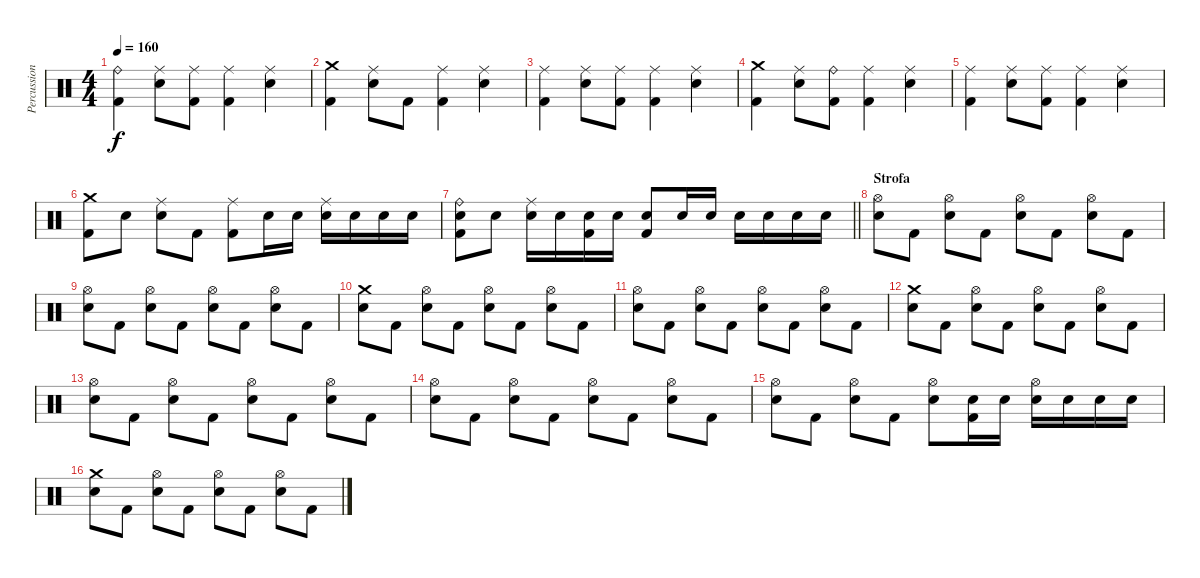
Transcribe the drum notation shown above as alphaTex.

\track ("Percussioni" "Percussion") {instrument percussion}
\staff {score}
\articulation defaults
\ts (4 4)
\tempo 160
\clef neutral
\ks c
("Ride (bell)" "Kick (hit) 2").4{dy f} ("Ride (middle)" "Electric Snare (hit)").8 ("Ride (middle)" "Kick (hit) 2").8 ("Ride (middle)" "Kick (hit) 2").4 ("Ride (middle)" "Electric Snare (hit)").4 |
("Crash medium (hit)" "Kick (hit) 2").4 ("Ride (middle)" "Electric Snare (hit)").8 "Kick (hit) 2".8 ("Ride (middle)" "Kick (hit) 2").4 ("Ride (middle)" "Electric Snare (hit)").4 |
("Ride (middle)" "Kick (hit) 2").4 ("Ride (middle)" "Electric Snare (hit)").8 ("Ride (middle)" "Kick (hit) 2").8 ("Ride (middle)" "Kick (hit) 2").4 ("Ride (middle)" "Electric Snare (hit)").4 |
("Crash medium (hit)" "Kick (hit) 2").4 ("Ride (middle)" "Electric Snare (hit)").8 ("Ride (bell)" "Kick (hit) 2").8 ("Ride (middle)" "Kick (hit) 2").4 ("Ride (middle)" "Electric Snare (hit)").4 |
("Ride (middle)" "Kick (hit) 2").4 ("Ride (middle)" "Electric Snare (hit)").8 ("Ride (middle)" "Kick (hit) 2").8 ("Ride (middle)" "Kick (hit) 2").4 ("Ride (middle)" "Electric Snare (hit)").4 |
("Crash medium (hit)" "Kick (hit) 2").8 "Electric Snare (hit)".8 ("Ride (middle)" "Electric Snare (hit)").8 "Kick (hit) 2".8 ("Ride (middle)" "Kick (hit) 2").8 "Electric Snare (hit)".16 "Electric Snare (hit)".16 ("Ride (middle)" "Electric Snare (hit)").16 "Electric Snare (hit)".16 "Electric Snare (hit)".16 "Electric Snare (hit)".16 |
\barLineRight lightlight
("Ride (bell)" "Electric Snare (hit)" "Kick (hit) 2").8 "Electric Snare (hit)".8 ("Ride (middle)" "Electric Snare (hit)").16 "Electric Snare (hit)".16 ("Electric Snare (hit)" "Kick (hit) 2").16 "Electric Snare (hit)".16 ("Electric Snare (hit)" "Kick (hit) 2").8 "Electric Snare (hit)".16 "Electric Snare (hit)".16 "Electric Snare (hit)".16 "Electric Snare (hit)".16 "Electric Snare (hit)".16 "Electric Snare (hit)".16 |
\section ("" "Strofa")
("Hi-Hat (open)" "Electric Snare (hit)").8 "Kick (hit) 2".8 ("Hi-Hat (open)" "Electric Snare (hit)").8 "Kick (hit) 2".8 ("Hi-Hat (open)" "Electric Snare (hit)").8 "Kick (hit) 2".8 ("Hi-Hat (open)" "Electric Snare (hit)").8 "Kick (hit) 2".8 |
("Hi-Hat (open)" "Electric Snare (hit)").8 "Kick (hit) 2".8 ("Hi-Hat (open)" "Electric Snare (hit)").8 "Kick (hit) 2".8 ("Hi-Hat (open)" "Electric Snare (hit)").8 "Kick (hit) 2".8 ("Hi-Hat (open)" "Electric Snare (hit)").8 "Kick (hit) 2".8 |
("Crash medium (hit)" "Electric Snare (hit)").8 "Kick (hit) 2".8 ("Hi-Hat (open)" "Electric Snare (hit)").8 "Kick (hit) 2".8 ("Hi-Hat (open)" "Electric Snare (hit)").8 "Kick (hit) 2".8 ("Hi-Hat (open)" "Electric Snare (hit)").8 "Kick (hit) 2".8 |
("Hi-Hat (open)" "Electric Snare (hit)").8 "Kick (hit) 2".8 ("Hi-Hat (open)" "Electric Snare (hit)").8 "Kick (hit) 2".8 ("Hi-Hat (open)" "Electric Snare (hit)").8 "Kick (hit) 2".8 ("Hi-Hat (open)" "Electric Snare (hit)").8 "Kick (hit) 2".8 |
("Crash medium (hit)" "Electric Snare (hit)").8 "Kick (hit) 2".8 ("Hi-Hat (open)" "Electric Snare (hit)").8 "Kick (hit) 2".8 ("Hi-Hat (open)" "Electric Snare (hit)").8 "Kick (hit) 2".8 ("Hi-Hat (open)" "Electric Snare (hit)").8 "Kick (hit) 2".8 |
("Hi-Hat (open)" "Electric Snare (hit)").8 "Kick (hit) 2".8 ("Hi-Hat (open)" "Electric Snare (hit)").8 "Kick (hit) 2".8 ("Hi-Hat (open)" "Electric Snare (hit)").8 "Kick (hit) 2".8 ("Hi-Hat (open)" "Electric Snare (hit)").8 "Kick (hit) 2".8 |
("Hi-Hat (open)" "Electric Snare (hit)").8 "Kick (hit) 2".8 ("Hi-Hat (open)" "Electric Snare (hit)").8 "Kick (hit) 2".8 ("Hi-Hat (open)" "Electric Snare (hit)").8 "Kick (hit) 2".8 ("Hi-Hat (open)" "Electric Snare (hit)").8 "Kick (hit) 2".8 |
("Hi-Hat (open)" "Electric Snare (hit)").8 "Kick (hit) 2".8 ("Hi-Hat (open)" "Electric Snare (hit)").8 "Kick (hit) 2".8 ("Hi-Hat (open)" "Electric Snare (hit)").8 ("Electric Snare (hit)" "Kick (hit) 2").16 "Electric Snare (hit)".16 ("Hi-Hat (open)" "Electric Snare (hit)").16 "Electric Snare (hit)".16 "Electric Snare (hit)".16 "Electric Snare (hit)".16 |
("Crash medium (hit)" "Electric Snare (hit)").8 "Kick (hit) 2".8 ("Hi-Hat (open)" "Electric Snare (hit)").8 "Kick (hit) 2".8 ("Hi-Hat (open)" "Electric Snare (hit)").8 "Kick (hit) 2".8 ("Hi-Hat (open)" "Electric Snare (hit)").8 "Kick (hit) 2".8
